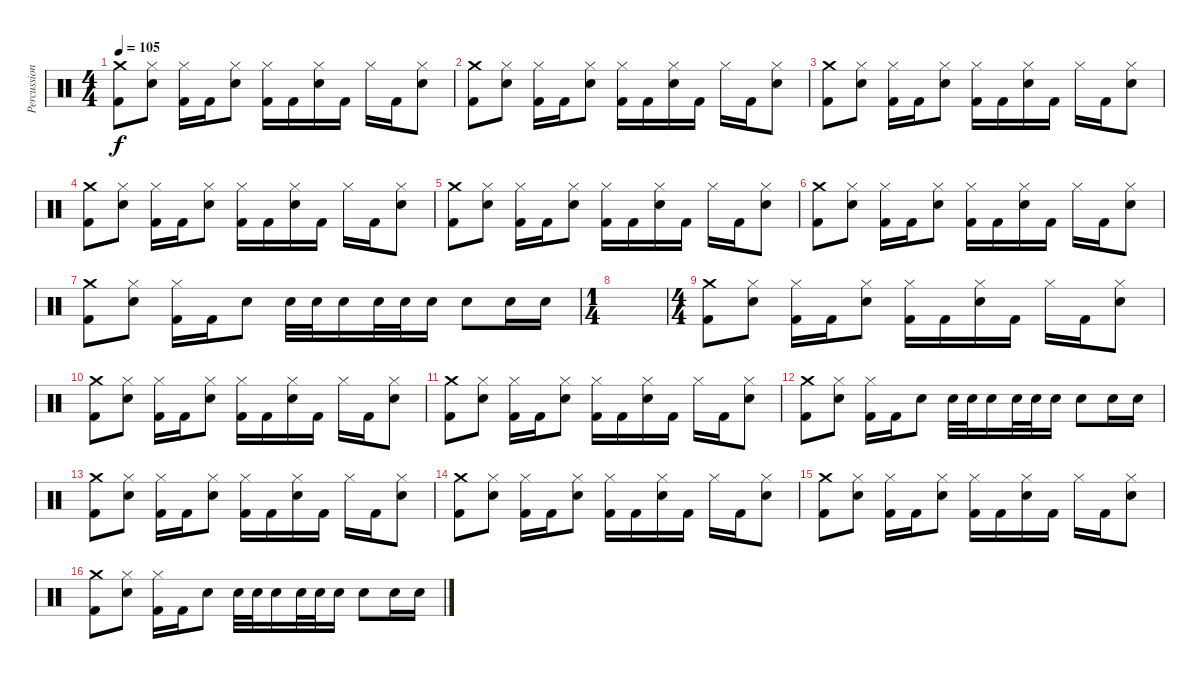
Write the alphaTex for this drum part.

\track ("Percussions" "Percussion") {instrument percussion}
\staff {score}
\articulation defaults
\ts (4 4)
\tempo 105
\clef neutral
\ks c
("Crash medium (hit)" "Kick (hit) 2").8{dy f} ("Hi-Hat (closed)" "Snare (hit) 2").8 ("Hi-Hat (closed)" "Kick (hit) 2").16 "Kick (hit) 2".16 ("Hi-Hat (closed)" "Snare (hit) 2").8 ("Hi-Hat (closed)" "Kick (hit) 2").16 "Kick (hit) 2".16 ("Hi-Hat (closed)" "Snare (hit) 2").16 "Kick (hit) 2".16 "Hi-Hat (closed)".16 "Kick (hit) 2".16 ("Hi-Hat (closed)" "Snare (hit) 2").8 |
("Crash medium (hit)" "Kick (hit) 2").8 ("Hi-Hat (closed)" "Snare (hit) 2").8 ("Hi-Hat (closed)" "Kick (hit) 2").16 "Kick (hit) 2".16 ("Hi-Hat (closed)" "Snare (hit) 2").8 ("Hi-Hat (closed)" "Kick (hit) 2").16 "Kick (hit) 2".16 ("Hi-Hat (closed)" "Snare (hit) 2").16 "Kick (hit) 2".16 "Hi-Hat (closed)".16 "Kick (hit) 2".16 ("Hi-Hat (closed)" "Snare (hit) 2").8 |
("Crash medium (hit)" "Kick (hit) 2").8 ("Hi-Hat (closed)" "Snare (hit) 2").8 ("Hi-Hat (closed)" "Kick (hit) 2").16 "Kick (hit) 2".16 ("Hi-Hat (closed)" "Snare (hit) 2").8 ("Hi-Hat (closed)" "Kick (hit) 2").16 "Kick (hit) 2".16 ("Hi-Hat (closed)" "Snare (hit) 2").16 "Kick (hit) 2".16 "Hi-Hat (closed)".16 "Kick (hit) 2".16 ("Hi-Hat (closed)" "Snare (hit) 2").8 |
("Crash medium (hit)" "Kick (hit) 2").8 ("Hi-Hat (closed)" "Snare (hit) 2").8 ("Hi-Hat (closed)" "Kick (hit) 2").16 "Kick (hit) 2".16 ("Hi-Hat (closed)" "Snare (hit) 2").8 ("Hi-Hat (closed)" "Kick (hit) 2").16 "Kick (hit) 2".16 ("Hi-Hat (closed)" "Snare (hit) 2").16 "Kick (hit) 2".16 "Hi-Hat (closed)".16 "Kick (hit) 2".16 ("Hi-Hat (closed)" "Snare (hit) 2").8 |
("Crash medium (hit)" "Kick (hit) 2").8 ("Hi-Hat (closed)" "Snare (hit) 2").8 ("Hi-Hat (closed)" "Kick (hit) 2").16 "Kick (hit) 2".16 ("Hi-Hat (closed)" "Snare (hit) 2").8 ("Hi-Hat (closed)" "Kick (hit) 2").16 "Kick (hit) 2".16 ("Hi-Hat (closed)" "Snare (hit) 2").16 "Kick (hit) 2".16 "Hi-Hat (closed)".16 "Kick (hit) 2".16 ("Hi-Hat (closed)" "Snare (hit) 2").8 |
("Crash medium (hit)" "Kick (hit) 2").8 ("Hi-Hat (closed)" "Snare (hit) 2").8 ("Hi-Hat (closed)" "Kick (hit) 2").16 "Kick (hit) 2".16 ("Hi-Hat (closed)" "Snare (hit) 2").8 ("Hi-Hat (closed)" "Kick (hit) 2").16 "Kick (hit) 2".16 ("Hi-Hat (closed)" "Snare (hit) 2").16 "Kick (hit) 2".16 "Hi-Hat (closed)".16 "Kick (hit) 2".16 ("Hi-Hat (closed)" "Snare (hit) 2").8 |
("Crash medium (hit)" "Kick (hit) 2").8 ("Hi-Hat (closed)" "Snare (hit) 2").8 ("Hi-Hat (closed)" "Kick (hit) 2").16 "Kick (hit) 2".16 "Snare (hit) 2".8 "Snare (hit) 2".32 "Snare (hit) 2".32 "Snare (hit) 2".16 "Snare (hit) 2".32 "Snare (hit) 2".32 "Snare (hit) 2".16 "Snare (hit) 2".8 "Snare (hit) 2".16 "Snare (hit) 2".16 |
\ts (1 4)
|
\ts (4 4)
("Crash medium (hit)" "Kick (hit) 2").8{volume 16} ("Hi-Hat (closed)" "Snare (hit) 2").8 ("Hi-Hat (closed)" "Kick (hit) 2").16 "Kick (hit) 2".16 ("Hi-Hat (closed)" "Snare (hit) 2").8 ("Hi-Hat (closed)" "Kick (hit) 2").16 "Kick (hit) 2".16 ("Hi-Hat (closed)" "Snare (hit) 2").16 "Kick (hit) 2".16 "Hi-Hat (closed)".16 "Kick (hit) 2".16 ("Hi-Hat (closed)" "Snare (hit) 2").8 |
("Crash medium (hit)" "Kick (hit) 2").8 ("Hi-Hat (closed)" "Snare (hit) 2").8 ("Hi-Hat (closed)" "Kick (hit) 2").16 "Kick (hit) 2".16 ("Hi-Hat (closed)" "Snare (hit) 2").8 ("Hi-Hat (closed)" "Kick (hit) 2").16 "Kick (hit) 2".16 ("Hi-Hat (closed)" "Snare (hit) 2").16 "Kick (hit) 2".16 "Hi-Hat (closed)".16 "Kick (hit) 2".16 ("Hi-Hat (closed)" "Snare (hit) 2").8 |
("Crash medium (hit)" "Kick (hit) 2").8 ("Hi-Hat (closed)" "Snare (hit) 2").8 ("Hi-Hat (closed)" "Kick (hit) 2").16 "Kick (hit) 2".16 ("Hi-Hat (closed)" "Snare (hit) 2").8 ("Hi-Hat (closed)" "Kick (hit) 2").16 "Kick (hit) 2".16 ("Hi-Hat (closed)" "Snare (hit) 2").16 "Kick (hit) 2".16 "Hi-Hat (closed)".16 "Kick (hit) 2".16 ("Hi-Hat (closed)" "Snare (hit) 2").8 |
("Crash medium (hit)" "Kick (hit) 2").8 ("Hi-Hat (closed)" "Snare (hit) 2").8 ("Hi-Hat (closed)" "Kick (hit) 2").16 "Kick (hit) 2".16 "Snare (hit) 2".8 "Snare (hit) 2".32 "Snare (hit) 2".32 "Snare (hit) 2".16 "Snare (hit) 2".32 "Snare (hit) 2".32 "Snare (hit) 2".16 "Snare (hit) 2".8 "Snare (hit) 2".16 "Snare (hit) 2".16 |
("Crash medium (hit)" "Kick (hit) 2").8{volume 16} ("Hi-Hat (closed)" "Snare (hit) 2").8 ("Hi-Hat (closed)" "Kick (hit) 2").16 "Kick (hit) 2".16 ("Hi-Hat (closed)" "Snare (hit) 2").8 ("Hi-Hat (closed)" "Kick (hit) 2").16 "Kick (hit) 2".16 ("Hi-Hat (closed)" "Snare (hit) 2").16 "Kick (hit) 2".16 "Hi-Hat (closed)".16 "Kick (hit) 2".16 ("Hi-Hat (closed)" "Snare (hit) 2").8 |
("Crash medium (hit)" "Kick (hit) 2").8 ("Hi-Hat (closed)" "Snare (hit) 2").8 ("Hi-Hat (closed)" "Kick (hit) 2").16 "Kick (hit) 2".16 ("Hi-Hat (closed)" "Snare (hit) 2").8 ("Hi-Hat (closed)" "Kick (hit) 2").16 "Kick (hit) 2".16 ("Hi-Hat (closed)" "Snare (hit) 2").16 "Kick (hit) 2".16 "Hi-Hat (closed)".16 "Kick (hit) 2".16 ("Hi-Hat (closed)" "Snare (hit) 2").8 |
("Crash medium (hit)" "Kick (hit) 2").8 ("Hi-Hat (closed)" "Snare (hit) 2").8 ("Hi-Hat (closed)" "Kick (hit) 2").16 "Kick (hit) 2".16 ("Hi-Hat (closed)" "Snare (hit) 2").8 ("Hi-Hat (closed)" "Kick (hit) 2").16 "Kick (hit) 2".16 ("Hi-Hat (closed)" "Snare (hit) 2").16 "Kick (hit) 2".16 "Hi-Hat (closed)".16 "Kick (hit) 2".16 ("Hi-Hat (closed)" "Snare (hit) 2").8 |
("Crash medium (hit)" "Kick (hit) 2").8 ("Hi-Hat (closed)" "Snare (hit) 2").8 ("Hi-Hat (closed)" "Kick (hit) 2").16 "Kick (hit) 2".16 "Snare (hit) 2".8 "Snare (hit) 2".32 "Snare (hit) 2".32 "Snare (hit) 2".16 "Snare (hit) 2".32 "Snare (hit) 2".32 "Snare (hit) 2".16 "Snare (hit) 2".8 "Snare (hit) 2".16 "Snare (hit) 2".16
